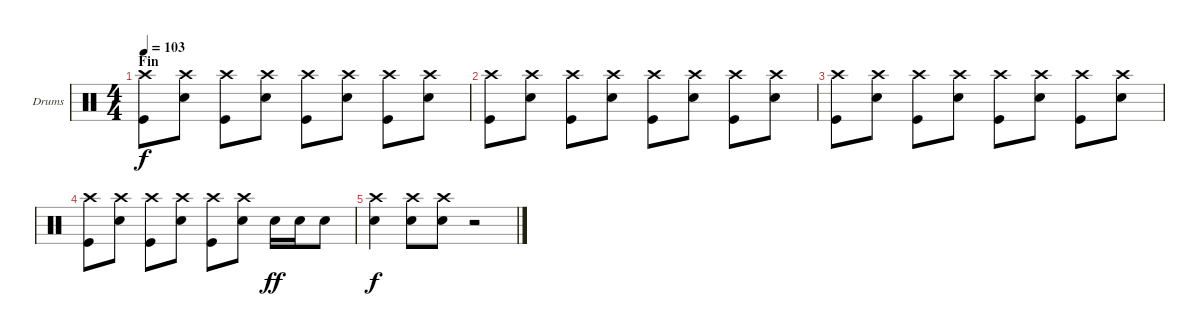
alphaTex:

\bracketExtendMode groupsimilarinstruments
\firstSystemTrackNameOrientation horizontal
\otherSystemsTrackNameOrientation horizontal
\chordDiagramsInScore
\track ("Drumkit" "Drums") {instrument percussion}
\staff {score}
\articulation defaults
\ts (4 4)
\section ("" "Fin")
\tempo 103
\clef neutral
\ks c
("Crash high (hit)" "Kick (hit)").8{dy f} ("Crash high (hit)" "Snare (hit) 2").8 ("Crash high (hit)" "Kick (hit)").8 ("Crash high (hit)" "Snare (hit) 2").8 ("Crash high (hit)" "Kick (hit)").8 ("Crash high (hit)" "Snare (hit) 2").8 ("Crash high (hit)" "Kick (hit)").8 ("Crash high (hit)" "Snare (hit) 2").8 |
("Crash high (hit)" "Kick (hit)").8 ("Crash high (hit)" "Snare (hit) 2").8 ("Crash high (hit)" "Kick (hit)").8 ("Crash high (hit)" "Snare (hit) 2").8 ("Crash high (hit)" "Kick (hit)").8 ("Crash high (hit)" "Snare (hit) 2").8 ("Crash high (hit)" "Kick (hit)").8 ("Crash high (hit)" "Snare (hit) 2").8 |
("Crash high (hit)" "Kick (hit)").8 ("Crash high (hit)" "Snare (hit) 2").8 ("Crash high (hit)" "Kick (hit)").8 ("Crash high (hit)" "Snare (hit) 2").8 ("Crash high (hit)" "Kick (hit)").8 ("Crash high (hit)" "Snare (hit) 2").8 ("Crash high (hit)" "Kick (hit)").8 ("Crash high (hit)" "Snare (hit) 2").8 |
("Crash high (hit)" "Kick (hit)").8 ("Crash high (hit)" "Snare (hit) 2").8 ("Crash high (hit)" "Kick (hit)").8 ("Crash high (hit)" "Snare (hit) 2").8 ("Crash high (hit)" "Kick (hit)").8 ("Crash high (hit)" "Snare (hit) 2").8 "Snare (hit) 2".16{dy ff} "Snare (hit) 2".16 "Snare (hit) 2".8 |
("Crash high (hit)" "Snare (hit) 2").4{dy f} ("Crash high (hit)" "Snare (hit) 2").8 ("Crash high (hit)" "Snare (hit) 2").8 r.2
